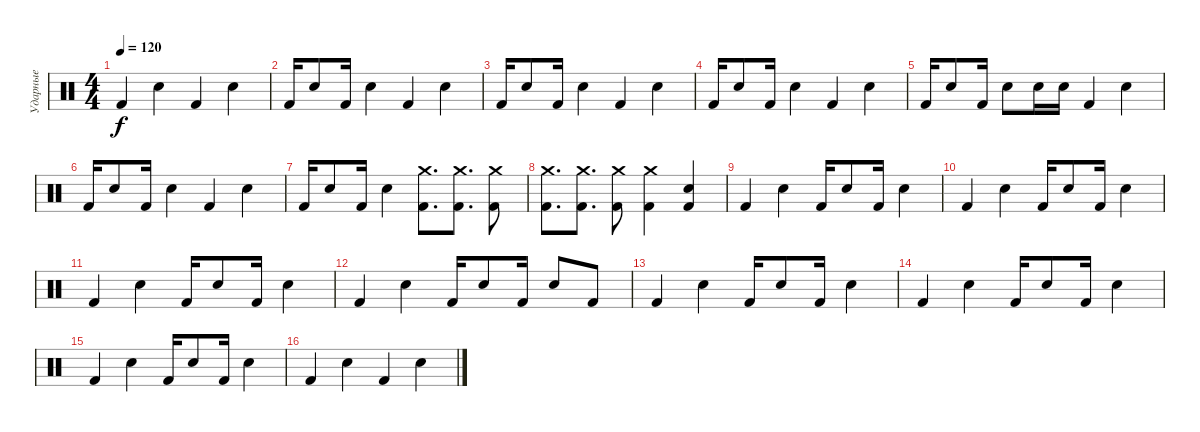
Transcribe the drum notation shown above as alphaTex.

\track ("Ударные" "Ударные") {instrument percussion}
\staff {score}
\articulation defaults
\ts (4 4)
\tempo 120
\clef neutral
\ks c "Kick (hit) 2".4{dy f} "Snare (hit) 2".4 "Kick (hit) 2".4 "Snare (hit) 2".4
|
"Kick (hit) 2".16 "Snare (hit) 2".8 "Kick (hit) 2".16 "Snare (hit) 2".4 "Kick (hit) 2".4 "Snare (hit) 2".4 |
"Kick (hit) 2".16 "Snare (hit) 2".8 "Kick (hit) 2".16 "Snare (hit) 2".4 "Kick (hit) 2".4 "Snare (hit) 2".4 |
"Kick (hit) 2".16 "Snare (hit) 2".8 "Kick (hit) 2".16 "Snare (hit) 2".4 "Kick (hit) 2".4 "Snare (hit) 2".4 |
"Kick (hit) 2".16 "Snare (hit) 2".8 "Kick (hit) 2".16 "Snare (hit) 2".8 "Snare (hit) 2".16 "Snare (hit) 2".16 "Kick (hit) 2".4 "Snare (hit) 2".4 |
"Kick (hit) 2".16 "Snare (hit) 2".8 "Kick (hit) 2".16 "Snare (hit) 2".4 "Kick (hit) 2".4 "Snare (hit) 2".4 |
"Kick (hit) 2".16 "Snare (hit) 2".8 "Kick (hit) 2".16 "Snare (hit) 2".4 ("Crash medium (hit)" "Kick (hit) 2").8{d} ("Crash medium (hit)" "Kick (hit) 2").8{d} ("Crash medium (hit)" "Kick (hit) 2").8 |
("Crash medium (hit)" "Kick (hit) 2").8{d} ("Crash medium (hit)" "Kick (hit) 2").8{d} ("Crash medium (hit)" "Kick (hit) 2").8 ("Crash medium (hit)" "Kick (hit) 2").4 ("Snare (hit) 2" "Kick (hit) 2").4 |
"Kick (hit) 2".4 "Snare (hit) 2".4 "Kick (hit) 2".16 "Snare (hit) 2".8 "Kick (hit) 2".16 "Snare (hit) 2".4 |
"Kick (hit) 2".4 "Snare (hit) 2".4 "Kick (hit) 2".16 "Snare (hit) 2".8 "Kick (hit) 2".16 "Snare (hit) 2".4 |
"Kick (hit) 2".4 "Snare (hit) 2".4 "Kick (hit) 2".16 "Snare (hit) 2".8 "Kick (hit) 2".16 "Snare (hit) 2".4 |
"Kick (hit) 2".4 "Snare (hit) 2".4 "Kick (hit) 2".16 "Snare (hit) 2".8 "Kick (hit) 2".16 "Snare (hit) 2".8 "Kick (hit) 2".8 |
"Kick (hit) 2".4 "Snare (hit) 2".4 "Kick (hit) 2".16 "Snare (hit) 2".8 "Kick (hit) 2".16 "Snare (hit) 2".4 |
"Kick (hit) 2".4 "Snare (hit) 2".4 "Kick (hit) 2".16 "Snare (hit) 2".8 "Kick (hit) 2".16 "Snare (hit) 2".4 |
"Kick (hit) 2".4 "Snare (hit) 2".4 "Kick (hit) 2".16 "Snare (hit) 2".8 "Kick (hit) 2".16 "Snare (hit) 2".4 |
"Kick (hit) 2".4 "Snare (hit) 2".4 "Kick (hit) 2".4 "Snare (hit) 2".4
